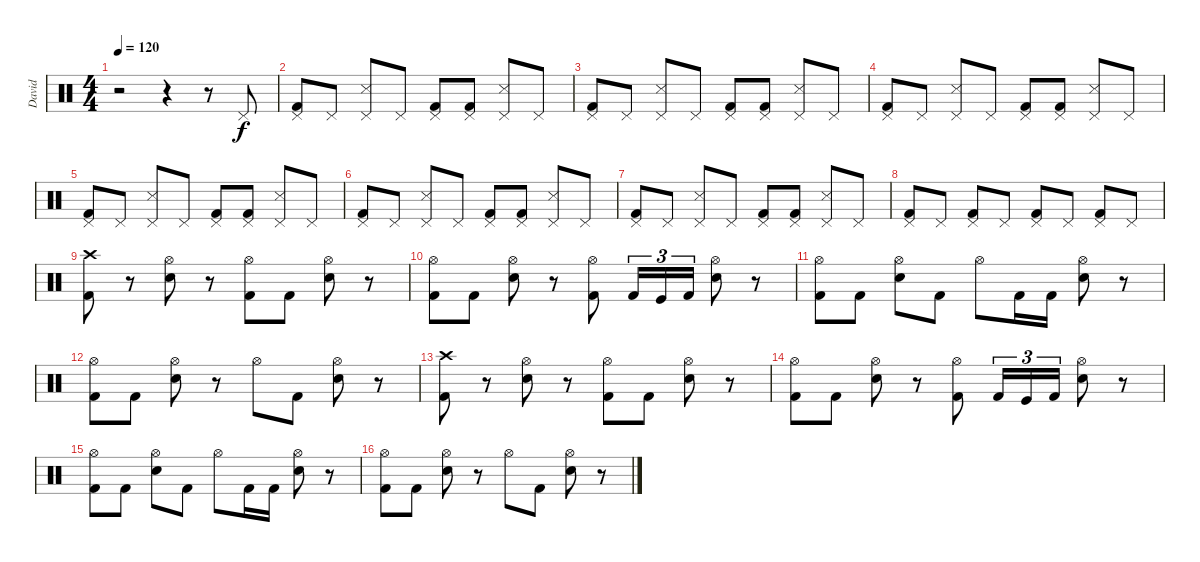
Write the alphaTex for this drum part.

\track ("David" "David") {instrument percussion}
\staff {score}
\articulation defaults
\ts (4 4)
\tempo 120
\clef neutral
\ks c
r.2{dy f} r.4 r.8 "Pedal Hi-Hat (hit)".8 |
("Pedal Hi-Hat (hit)" "Kick (hit) 2").8 "Pedal Hi-Hat (hit)".8 ("Pedal Hi-Hat (hit)" "Snare (side stick) 3").8 "Pedal Hi-Hat (hit)".8 ("Pedal Hi-Hat (hit)" "Kick (hit) 2").8 ("Pedal Hi-Hat (hit)" "Kick (hit) 2").8 ("Pedal Hi-Hat (hit)" "Snare (side stick) 3").8 "Pedal Hi-Hat (hit)".8 |
("Pedal Hi-Hat (hit)" "Kick (hit) 2").8 "Pedal Hi-Hat (hit)".8 ("Pedal Hi-Hat (hit)" "Snare (side stick) 3").8 "Pedal Hi-Hat (hit)".8 ("Pedal Hi-Hat (hit)" "Kick (hit) 2").8 ("Pedal Hi-Hat (hit)" "Kick (hit) 2").8 ("Pedal Hi-Hat (hit)" "Snare (side stick) 3").8 "Pedal Hi-Hat (hit)".8 |
("Pedal Hi-Hat (hit)" "Kick (hit) 2").8 "Pedal Hi-Hat (hit)".8 ("Pedal Hi-Hat (hit)" "Snare (side stick) 3").8 "Pedal Hi-Hat (hit)".8 ("Pedal Hi-Hat (hit)" "Kick (hit) 2").8 ("Pedal Hi-Hat (hit)" "Kick (hit) 2").8 ("Pedal Hi-Hat (hit)" "Snare (side stick) 3").8 "Pedal Hi-Hat (hit)".8 |
("Pedal Hi-Hat (hit)" "Kick (hit) 2").8 "Pedal Hi-Hat (hit)".8 ("Pedal Hi-Hat (hit)" "Snare (side stick) 3").8 "Pedal Hi-Hat (hit)".8 ("Pedal Hi-Hat (hit)" "Kick (hit) 2").8 ("Pedal Hi-Hat (hit)" "Kick (hit) 2").8 ("Pedal Hi-Hat (hit)" "Snare (side stick) 3").8 "Pedal Hi-Hat (hit)".8 |
("Pedal Hi-Hat (hit)" "Kick (hit) 2").8 "Pedal Hi-Hat (hit)".8 ("Pedal Hi-Hat (hit)" "Snare (side stick) 3").8 "Pedal Hi-Hat (hit)".8 ("Pedal Hi-Hat (hit)" "Kick (hit) 2").8 ("Pedal Hi-Hat (hit)" "Kick (hit) 2").8 ("Pedal Hi-Hat (hit)" "Snare (side stick) 3").8 "Pedal Hi-Hat (hit)".8 |
("Pedal Hi-Hat (hit)" "Kick (hit) 2").8 "Pedal Hi-Hat (hit)".8 ("Pedal Hi-Hat (hit)" "Snare (side stick) 3").8 "Pedal Hi-Hat (hit)".8 ("Pedal Hi-Hat (hit)" "Kick (hit) 2").8 ("Pedal Hi-Hat (hit)" "Kick (hit) 2").8 ("Pedal Hi-Hat (hit)" "Snare (side stick) 3").8 "Pedal Hi-Hat (hit)".8 |
("Pedal Hi-Hat (hit)" "Kick (hit) 2").8 "Pedal Hi-Hat (hit)".8 ("Pedal Hi-Hat (hit)" "Kick (hit) 2").8 "Pedal Hi-Hat (hit)".8 ("Pedal Hi-Hat (hit)" "Kick (hit) 2").8 "Pedal Hi-Hat (hit)".8 ("Pedal Hi-Hat (hit)" "Kick (hit) 2").8 "Pedal Hi-Hat (hit)".8 |
("Crash high (hit)" "Kick (hit) 2").8 r.8 ("Hi-Hat (open)" "Snare (hit) 2").8 r.8 ("Hi-Hat (open)" "Kick (hit) 2").8 "Kick (hit) 2".8 ("Hi-Hat (open)" "Snare (hit) 2").8 r.8 |
("Hi-Hat (open)" "Kick (hit) 2").8 "Kick (hit) 2".8 ("Hi-Hat (open)" "Snare (hit) 2").8 r.8 ("Hi-Hat (open)" "Kick (hit) 2").8 "Kick (hit) 2".16{tu (3 2)} "Kick (hit)".16{tu (3 2)} "Kick (hit) 2".16{tu (3 2)} ("Hi-Hat (open)" "Snare (hit) 2").8 r.8 |
("Hi-Hat (open)" "Kick (hit) 2").8 "Kick (hit) 2".8 ("Hi-Hat (open)" "Snare (hit) 2").8 "Kick (hit) 2".8 "Hi-Hat (open)".8 "Kick (hit) 2".16 "Kick (hit) 2".16 ("Hi-Hat (open)" "Snare (hit) 2").8 r.8 |
("Hi-Hat (open)" "Kick (hit) 2").8 "Kick (hit) 2".8 ("Hi-Hat (open)" "Snare (hit) 2").8 r.8 "Hi-Hat (open)".8 "Kick (hit) 2".8 ("Hi-Hat (open)" "Snare (hit) 2").8 r.8 |
("Crash high (hit)" "Kick (hit) 2").8 r.8 ("Hi-Hat (open)" "Snare (hit) 2").8 r.8 ("Hi-Hat (open)" "Kick (hit) 2").8 "Kick (hit) 2".8 ("Hi-Hat (open)" "Snare (hit) 2").8 r.8 |
("Hi-Hat (open)" "Kick (hit) 2").8 "Kick (hit) 2".8 ("Hi-Hat (open)" "Snare (hit) 2").8 r.8 ("Hi-Hat (open)" "Kick (hit) 2").8 "Kick (hit) 2".16{tu (3 2)} "Kick (hit)".16{tu (3 2)} "Kick (hit) 2".16{tu (3 2)} ("Hi-Hat (open)" "Snare (hit) 2").8 r.8 |
("Hi-Hat (open)" "Kick (hit) 2").8 "Kick (hit) 2".8 ("Hi-Hat (open)" "Snare (hit) 2").8 "Kick (hit) 2".8 "Hi-Hat (open)".8 "Kick (hit) 2".16 "Kick (hit) 2".16 ("Hi-Hat (open)" "Snare (hit) 2").8 r.8 |
("Hi-Hat (open)" "Kick (hit) 2").8 "Kick (hit) 2".8 ("Hi-Hat (open)" "Snare (hit) 2").8 r.8 "Hi-Hat (open)".8 "Kick (hit) 2".8 ("Hi-Hat (open)" "Snare (hit) 2").8 r.8
